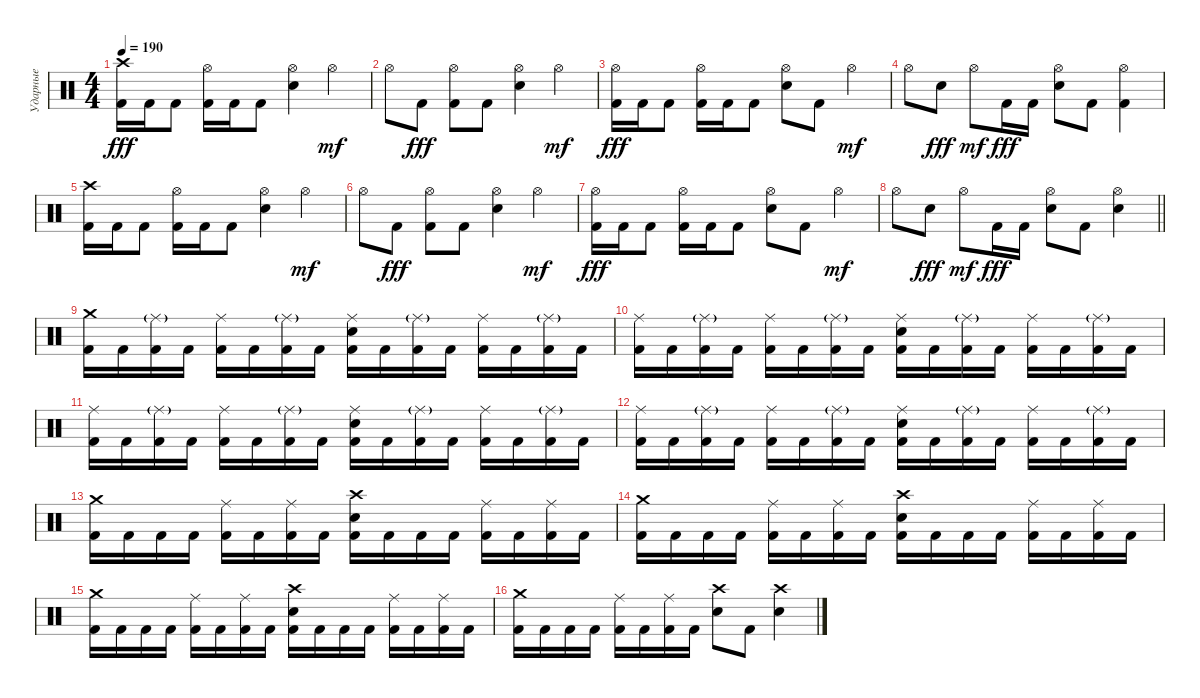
\track ("Ударные" "Ударные") {instrument percussion}
\staff {score}
\articulation defaults
\ts (4 4)
\tempo 190
\clef neutral
\ks c
("Crash high (hit)" "Kick (hit) 2").16{dy fff} "Kick (hit) 2".16 "Kick (hit) 2".8 ("Hi-Hat (open)" "Kick (hit) 2").16 "Kick (hit) 2".16 "Kick (hit) 2".8 ("Hi-Hat (open)" "Electric Snare (hit)").4 "Hi-Hat (open)".4{dy mf} |
"Hi-Hat (open)".8 "Kick (hit) 2".8{dy fff} ("Hi-Hat (open)" "Kick (hit) 2").8 "Kick (hit) 2".8 ("Hi-Hat (open)" "Electric Snare (hit)").4 "Hi-Hat (open)".4{dy mf} |
("Hi-Hat (open)" "Kick (hit) 2").16{dy fff} "Kick (hit) 2".16 "Kick (hit) 2".8 ("Hi-Hat (open)" "Kick (hit) 2").16 "Kick (hit) 2".16 "Kick (hit) 2".8 ("Hi-Hat (open)" "Electric Snare (hit)").8 "Kick (hit) 2".8 "Hi-Hat (open)".4{dy mf} |
"Hi-Hat (open)".8 "Electric Snare (hit)".8{dy fff} "Hi-Hat (open)".8{dy mf} "Kick (hit) 2".16{dy fff} "Kick (hit) 2".16 ("Hi-Hat (open)" "Electric Snare (hit)").8 "Kick (hit) 2".8 ("Hi-Hat (open)" "Kick (hit) 2").4 |
("Crash high (hit)" "Kick (hit) 2").16 "Kick (hit) 2".16 "Kick (hit) 2".8 ("Hi-Hat (open)" "Kick (hit) 2").16 "Kick (hit) 2".16 "Kick (hit) 2".8 ("Hi-Hat (open)" "Electric Snare (hit)").4 "Hi-Hat (open)".4{dy mf} |
"Hi-Hat (open)".8 "Kick (hit) 2".8{dy fff} ("Hi-Hat (open)" "Kick (hit) 2").8 "Kick (hit) 2".8 ("Hi-Hat (open)" "Electric Snare (hit)").4 "Hi-Hat (open)".4{dy mf} |
("Hi-Hat (open)" "Kick (hit) 2").16{dy fff} "Kick (hit) 2".16 "Kick (hit) 2".8 ("Hi-Hat (open)" "Kick (hit) 2").16 "Kick (hit) 2".16 "Kick (hit) 2".8 ("Hi-Hat (open)" "Electric Snare (hit)").8 "Kick (hit) 2".8 "Hi-Hat (open)".4{dy mf} |
\barLineRight lightlight "Hi-Hat (open)".8 "Electric Snare (hit)".8{dy fff} "Hi-Hat (open)".8{dy mf} "Kick (hit) 2".16{dy fff} "Kick (hit) 2".16
("Hi-Hat (open)" "Electric Snare (hit)").8 "Kick (hit) 2".8 ("Hi-Hat (open)" "Electric Snare (hit)").4 |
\section ("" "")
("Crash medium (hit)" "Kick (hit) 2").16 "Kick (hit) 2".16 ("Ride (middle)"{g} "Kick (hit) 2").16 "Kick (hit) 2".16 ("Ride (middle)" "Kick (hit) 2").16 "Kick (hit) 2".16 ("Ride (middle)"{g} "Kick (hit) 2").16 "Kick (hit) 2".16 ("Ride (middle)" "Electric Snare (hit)" "Kick (hit) 2").16 "Kick (hit) 2".16 ("Ride (middle)"{g} "Kick (hit) 2").16 "Kick (hit) 2".16 ("Ride (middle)" "Kick (hit) 2").16 "Kick (hit) 2".16 ("Ride (middle)"{g} "Kick (hit) 2").16 "Kick (hit) 2".16 |
("Ride (middle)" "Kick (hit) 2").16 "Kick (hit) 2".16 ("Ride (middle)"{g} "Kick (hit) 2").16 "Kick (hit) 2".16 ("Ride (middle)" "Kick (hit) 2").16 "Kick (hit) 2".16 ("Ride (middle)"{g} "Kick (hit) 2").16 "Kick (hit) 2".16 ("Ride (middle)" "Electric Snare (hit)" "Kick (hit) 2").16 "Kick (hit) 2".16 ("Ride (middle)"{g} "Kick (hit) 2").16 "Kick (hit) 2".16 ("Ride (middle)" "Kick (hit) 2").16 "Kick (hit) 2".16 ("Ride (middle)"{g} "Kick (hit) 2").16 "Kick (hit) 2".16 |
("Ride (middle)" "Kick (hit) 2").16 "Kick (hit) 2".16 ("Ride (middle)"{g} "Kick (hit) 2").16 "Kick (hit) 2".16 ("Ride (middle)" "Kick (hit) 2").16 "Kick (hit) 2".16 ("Ride (middle)"{g} "Kick (hit) 2").16 "Kick (hit) 2".16 ("Ride (middle)" "Electric Snare (hit)" "Kick (hit) 2").16 "Kick (hit) 2".16 ("Ride (middle)"{g} "Kick (hit) 2").16 "Kick (hit) 2".16 ("Ride (middle)" "Kick (hit) 2").16 "Kick (hit) 2".16 ("Ride (middle)"{g} "Kick (hit) 2").16 "Kick (hit) 2".16 |
("Ride (middle)" "Kick (hit) 2").16 "Kick (hit) 2".16 ("Ride (middle)"{g} "Kick (hit) 2").16 "Kick (hit) 2".16 ("Ride (middle)" "Kick (hit) 2").16 "Kick (hit) 2".16 ("Ride (middle)"{g} "Kick (hit) 2").16 "Kick (hit) 2".16 ("Ride (middle)" "Electric Snare (hit)" "Kick (hit) 2").16 "Kick (hit) 2".16 ("Ride (middle)"{g} "Kick (hit) 2").16 "Kick (hit) 2".16 ("Ride (middle)" "Kick (hit) 2").16 "Kick (hit) 2".16 ("Ride (middle)"{g} "Kick (hit) 2").16 "Kick (hit) 2".16 |
("Crash medium (hit)" "Kick (hit) 2").16 "Kick (hit) 2".16 "Kick (hit) 2".16 "Kick (hit) 2".16 ("Ride (middle)" "Kick (hit) 2").16 "Kick (hit) 2".16 ("Ride (middle)" "Kick (hit) 2").16 "Kick (hit) 2".16 ("Crash high (hit)" "Electric Snare (hit)" "Kick (hit) 2").16 "Kick (hit) 2".16 "Kick (hit) 2".16 "Kick (hit) 2".16 ("Ride (middle)" "Kick (hit) 2").16 "Kick (hit) 2".16 ("Ride (middle)" "Kick (hit) 2").16 "Kick (hit) 2".16 |
("Crash medium (hit)" "Kick (hit) 2").16 "Kick (hit) 2".16 "Kick (hit) 2".16 "Kick (hit) 2".16 ("Ride (middle)" "Kick (hit) 2").16 "Kick (hit) 2".16 ("Ride (middle)" "Kick (hit) 2").16 "Kick (hit) 2".16 ("Crash high (hit)" "Electric Snare (hit)" "Kick (hit) 2").16 "Kick (hit) 2".16 "Kick (hit) 2".16 "Kick (hit) 2".16 ("Ride (middle)" "Kick (hit) 2").16 "Kick (hit) 2".16 ("Ride (middle)" "Kick (hit) 2").16 "Kick (hit) 2".16 |
("Crash medium (hit)" "Kick (hit) 2").16 "Kick (hit) 2".16 "Kick (hit) 2".16 "Kick (hit) 2".16 ("Ride (middle)" "Kick (hit) 2").16 "Kick (hit) 2".16 ("Ride (middle)" "Kick (hit) 2").16 "Kick (hit) 2".16 ("Crash high (hit)" "Electric Snare (hit)" "Kick (hit) 2").16 "Kick (hit) 2".16 "Kick (hit) 2".16 "Kick (hit) 2".16 ("Ride (middle)" "Kick (hit) 2").16 "Kick (hit) 2".16 ("Ride (middle)" "Kick (hit) 2").16 "Kick (hit) 2".16 |
("Crash medium (hit)" "Kick (hit) 2").16 "Kick (hit) 2".16 "Kick (hit) 2".16 "Kick (hit) 2".16 ("Ride (middle)" "Kick (hit) 2").16 "Kick (hit) 2".16 ("Ride (middle)" "Kick (hit) 2").16 "Kick (hit) 2".16 ("Crash high (hit)" "Electric Snare (hit)").8 "Kick (hit) 2".8 ("Crash high (hit)" "Electric Snare (hit)").4
